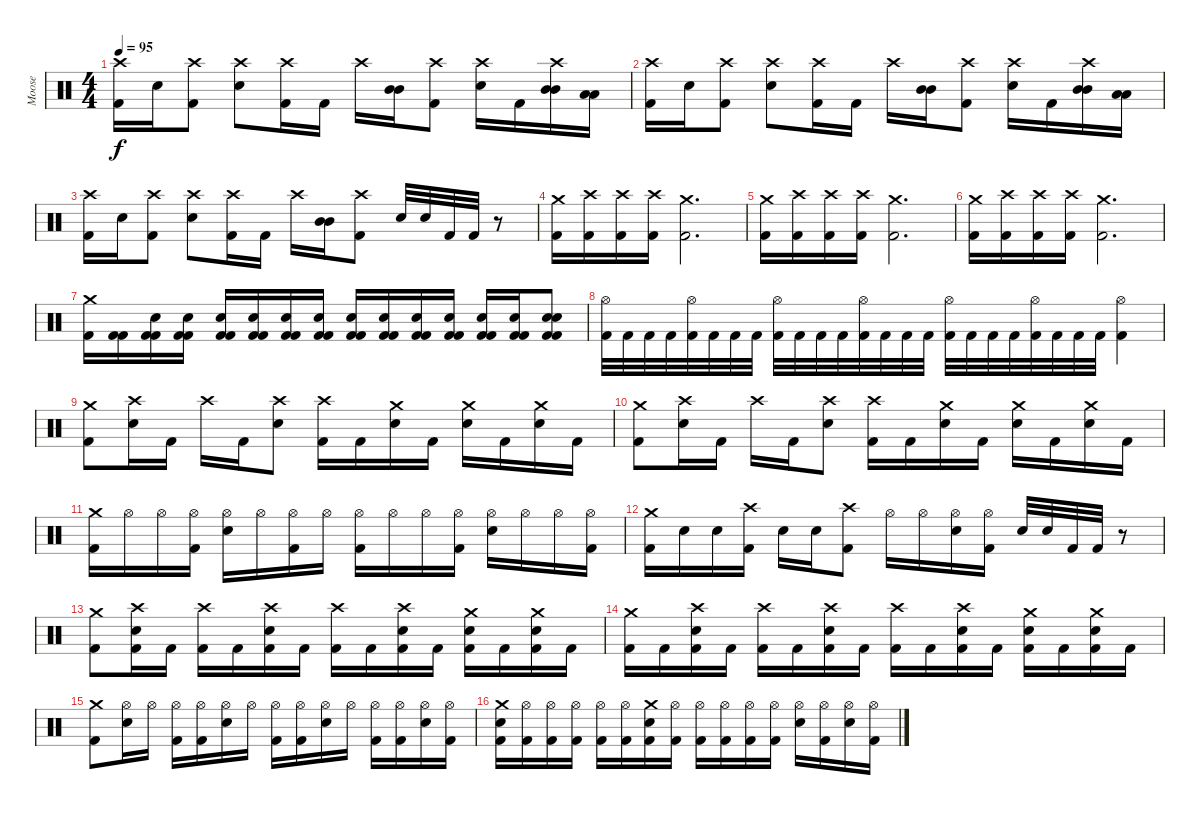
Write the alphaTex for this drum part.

\track ("Moose" "Moose") {instrument percussion}
\staff {score}
\articulation defaults
\ts (4 4)
\tempo 95
\clef neutral
\ks c
("Crash high (hit)" "Kick (hit) 2").16{dy f} "Electric Snare (hit)".16 ("Crash high (hit)" "Kick (hit) 2").8 ("Crash high (hit)" "Electric Snare (hit)").8 ("Crash high (hit)" "Kick (hit) 2").16 "Kick (hit) 2".16 "Crash high (hit)".16 ("Mid Tom (hit)" "Mid Tom (hit)").16 ("Crash high (hit)" "Kick (hit) 2").8 ("Crash high (hit)" "Electric Snare (hit)").16 "Kick (hit) 2".16 ("Crash high (hit)" "Mid Tom (hit)" "Mid Tom (hit)").16 ("Low Tom (hit)" "Low Tom (hit)").16 |
("Crash high (hit)" "Kick (hit) 2").16 "Electric Snare (hit)".16 ("Crash high (hit)" "Kick (hit) 2").8 ("Crash high (hit)" "Electric Snare (hit)").8 ("Crash high (hit)" "Kick (hit) 2").16 "Kick (hit) 2".16 "Crash high (hit)".16 ("Mid Tom (hit)" "Mid Tom (hit)").16 ("Crash high (hit)" "Kick (hit) 2").8 ("Crash high (hit)" "Electric Snare (hit)").16 "Kick (hit) 2".16 ("Crash high (hit)" "Mid Tom (hit)" "Mid Tom (hit)").16 ("Low Tom (hit)" "Low Tom (hit)").16 |
("Crash high (hit)" "Kick (hit) 2").16 "Electric Snare (hit)".16 ("Crash high (hit)" "Kick (hit) 2").8 ("Crash high (hit)" "Electric Snare (hit)").8 ("Crash high (hit)" "Kick (hit) 2").16 "Kick (hit) 2".16 "Crash high (hit)".16 ("Mid Tom (hit)" "Mid Tom (hit)").16 ("Crash high (hit)" "Kick (hit) 2").8 "Electric Snare (hit)".32 "Electric Snare (hit)".32 "Kick (hit) 2".32 "Kick (hit) 2".32 r.8 |
("Crash medium (hit)" "Kick (hit) 2").16 ("Crash high (hit)" "Kick (hit) 2").16 ("Crash high (hit)" "Kick (hit) 2").16 ("Crash high (hit)" "Kick (hit) 2").16 ("Crash medium (hit)" "Kick (hit) 2").2{d} |
("Crash medium (hit)" "Kick (hit) 2").16 ("Crash high (hit)" "Kick (hit) 2").16 ("Crash high (hit)" "Kick (hit) 2").16 ("Crash high (hit)" "Kick (hit) 2").16 ("Crash medium (hit)" "Kick (hit) 2").2{d} |
("Crash medium (hit)" "Kick (hit) 2").16 ("Crash high (hit)" "Kick (hit) 2").16 ("Crash high (hit)" "Kick (hit) 2").16 ("Crash high (hit)" "Kick (hit) 2").16 ("Crash medium (hit)" "Kick (hit) 2").2{d} |
("Crash medium (hit)" "Kick (hit) 2").16 ("Kick (hit) 2" "Kick (hit) 2").16 ("Electric Snare (hit)" "Kick (hit) 2" "Kick (hit) 2").16 ("Electric Snare (hit)" "Kick (hit) 2" "Kick (hit) 2").16 ("Electric Snare (hit)" "Kick (hit) 2" "Kick (hit) 2").16 ("Electric Snare (hit)" "Kick (hit) 2" "Kick (hit) 2").16 ("Electric Snare (hit)" "Kick (hit) 2" "Kick (hit) 2").16 ("Electric Snare (hit)" "Kick (hit) 2" "Kick (hit) 2").16 ("Electric Snare (hit)" "Kick (hit) 2" "Kick (hit) 2").16 ("Electric Snare (hit)" "Kick (hit) 2" "Kick (hit) 2").16 ("Electric Snare (hit)" "Kick (hit) 2" "Kick (hit) 2").16 ("Electric Snare (hit)" "Kick (hit) 2" "Kick (hit) 2").16 ("Electric Snare (hit)" "Kick (hit) 2" "Kick (hit) 2").16 ("Electric Snare (hit)" "Kick (hit) 2" "Kick (hit) 2").16 ("Electric Snare (hit)" "Electric Snare (hit)" "Kick (hit) 2" "Kick (hit) 2").8 |
("Hi-Hat (open)" "Kick (hit) 2").32 "Kick (hit) 2".32 "Kick (hit) 2".32 "Kick (hit) 2".32 ("Hi-Hat (open)" "Kick (hit) 2").32 "Kick (hit) 2".32 "Kick (hit) 2".32 "Kick (hit) 2".32 ("Hi-Hat (open)" "Kick (hit) 2").32 "Kick (hit) 2".32 "Kick (hit) 2".32 "Kick (hit) 2".32 ("Hi-Hat (open)" "Kick (hit) 2").32 "Kick (hit) 2".32 "Kick (hit) 2".32 "Kick (hit) 2".32 ("Hi-Hat (open)" "Kick (hit) 2").32 "Kick (hit) 2".32 "Kick (hit) 2".32 "Kick (hit) 2".32 ("Hi-Hat (open)" "Kick (hit) 2").32 "Kick (hit) 2".32 "Kick (hit) 2".32 "Kick (hit) 2".32 ("Hi-Hat (open)" "Kick (hit) 2").4 |
("Crash medium (hit)" "Kick (hit) 2").8 ("Crash high (hit)" "Electric Snare (hit)").16 "Kick (hit) 2".16 "Crash high (hit)".16 "Kick (hit) 2".16 ("Crash high (hit)" "Electric Snare (hit)").8 ("Crash high (hit)" "Kick (hit) 2").16 "Kick (hit) 2".16 ("Crash medium (hit)" "Electric Snare (hit)").16 "Kick (hit) 2".16 ("Crash medium (hit)" "Electric Snare (hit)").16 "Kick (hit) 2".16 ("Crash medium (hit)" "Electric Snare (hit)").16 "Kick (hit) 2".16 |
("Crash medium (hit)" "Kick (hit) 2").8 ("Crash high (hit)" "Electric Snare (hit)").16 "Kick (hit) 2".16 "Crash high (hit)".16 "Kick (hit) 2".16 ("Crash high (hit)" "Electric Snare (hit)").8 ("Crash high (hit)" "Kick (hit) 2").16 "Kick (hit) 2".16 ("Crash medium (hit)" "Electric Snare (hit)").16 "Kick (hit) 2".16 ("Crash medium (hit)" "Electric Snare (hit)").16 "Kick (hit) 2".16 ("Crash medium (hit)" "Electric Snare (hit)").16 "Kick (hit) 2".16 |
("Crash medium (hit)" "Kick (hit) 2").16 "Hi-Hat (open)".16 "Hi-Hat (open)".16 ("Hi-Hat (open)" "Kick (hit) 2").16 ("Hi-Hat (open)" "Electric Snare (hit)").16 "Hi-Hat (open)".16 ("Hi-Hat (open)" "Kick (hit) 2").16 "Hi-Hat (open)".16 ("Hi-Hat (open)" "Kick (hit) 2").16 "Hi-Hat (open)".16 "Hi-Hat (open)".16 ("Hi-Hat (open)" "Kick (hit) 2").16 ("Hi-Hat (open)" "Electric Snare (hit)").16 "Hi-Hat (open)".16 "Hi-Hat (open)".16 ("Hi-Hat (open)" "Kick (hit) 2").16 |
("Crash medium (hit)" "Kick (hit) 2").16 "Electric Snare (hit)".16 "Electric Snare (hit)".16 ("Crash high (hit)" "Kick (hit) 2").16 "Electric Snare (hit)".16 "Electric Snare (hit)".16 ("Crash high (hit)" "Kick (hit) 2").8 "Hi-Hat (open)".16 "Hi-Hat (open)".16 ("Hi-Hat (open)" "Electric Snare (hit)").16 ("Hi-Hat (open)" "Kick (hit) 2").16 "Electric Snare (hit)".32 "Electric Snare (hit)".32 "Kick (hit) 2".32 "Kick (hit) 2".32 r.8 |
("Crash medium (hit)" "Kick (hit) 2").8 ("Crash high (hit)" "Electric Snare (hit)" "Kick (hit) 2").16 "Kick (hit) 2".16 ("Crash high (hit)" "Kick (hit) 2").16 "Kick (hit) 2".16 ("Crash high (hit)" "Electric Snare (hit)" "Kick (hit) 2").16 "Kick (hit) 2".16 ("Crash high (hit)" "Kick (hit) 2").16 "Kick (hit) 2".16 ("Crash high (hit)" "Electric Snare (hit)" "Kick (hit) 2").16 "Kick (hit) 2".16 ("Crash medium (hit)" "Electric Snare (hit)" "Kick (hit) 2").16 "Kick (hit) 2".16 ("Crash medium (hit)" "Electric Snare (hit)" "Kick (hit) 2").16 "Kick (hit) 2".16 |
("Crash medium (hit)" "Kick (hit) 2").16 "Kick (hit) 2".16 ("Crash high (hit)" "Electric Snare (hit)" "Kick (hit) 2").16 "Kick (hit) 2".16 ("Crash high (hit)" "Kick (hit) 2").16 "Kick (hit) 2".16 ("Crash high (hit)" "Electric Snare (hit)" "Kick (hit) 2").16 "Kick (hit) 2".16 ("Crash high (hit)" "Kick (hit) 2").16 "Kick (hit) 2".16 ("Crash high (hit)" "Electric Snare (hit)" "Kick (hit) 2").16 "Kick (hit) 2".16 ("Crash medium (hit)" "Electric Snare (hit)" "Kick (hit) 2").16 "Kick (hit) 2".16 ("Crash medium (hit)" "Electric Snare (hit)" "Kick (hit) 2").16 "Kick (hit) 2".16 |
("Crash medium (hit)" "Kick (hit) 2").8 ("Hi-Hat (open)" "Electric Snare (hit)").16 "Hi-Hat (open)".16 ("Hi-Hat (open)" "Kick (hit) 2").16 ("Hi-Hat (open)" "Kick (hit) 2").16 ("Hi-Hat (open)" "Electric Snare (hit)").16 "Hi-Hat (open)".16 ("Hi-Hat (open)" "Kick (hit) 2").16 ("Hi-Hat (open)" "Kick (hit) 2").16 ("Hi-Hat (open)" "Electric Snare (hit)").16 "Hi-Hat (open)".16 ("Hi-Hat (open)" "Kick (hit) 2").16 ("Hi-Hat (open)" "Kick (hit) 2").16 ("Hi-Hat (open)" "Electric Snare (hit)").16 ("Hi-Hat (open)" "Kick (hit) 2").16 |
("Crash medium (hit)" "Electric Snare (hit)" "Kick (hit) 2").16 ("Hi-Hat (open)" "Kick (hit) 2").16 ("Hi-Hat (open)" "Kick (hit) 2").16 ("Hi-Hat (open)" "Kick (hit) 2").16 ("Hi-Hat (open)" "Kick (hit) 2").16 ("Hi-Hat (open)" "Kick (hit) 2").16 ("Crash medium (hit)" "Electric Snare (hit)" "Kick (hit) 2").16 ("Hi-Hat (open)" "Kick (hit) 2").16 ("Hi-Hat (open)" "Kick (hit) 2").16 ("Hi-Hat (open)" "Kick (hit) 2").16 ("Hi-Hat (open)" "Kick (hit) 2").16 ("Hi-Hat (open)" "Kick (hit) 2").16 ("Hi-Hat (open)" "Electric Snare (hit)").16 ("Hi-Hat (open)" "Kick (hit) 2").16 ("Hi-Hat (open)" "Electric Snare (hit)").16 ("Hi-Hat (open)" "Kick (hit) 2").16
